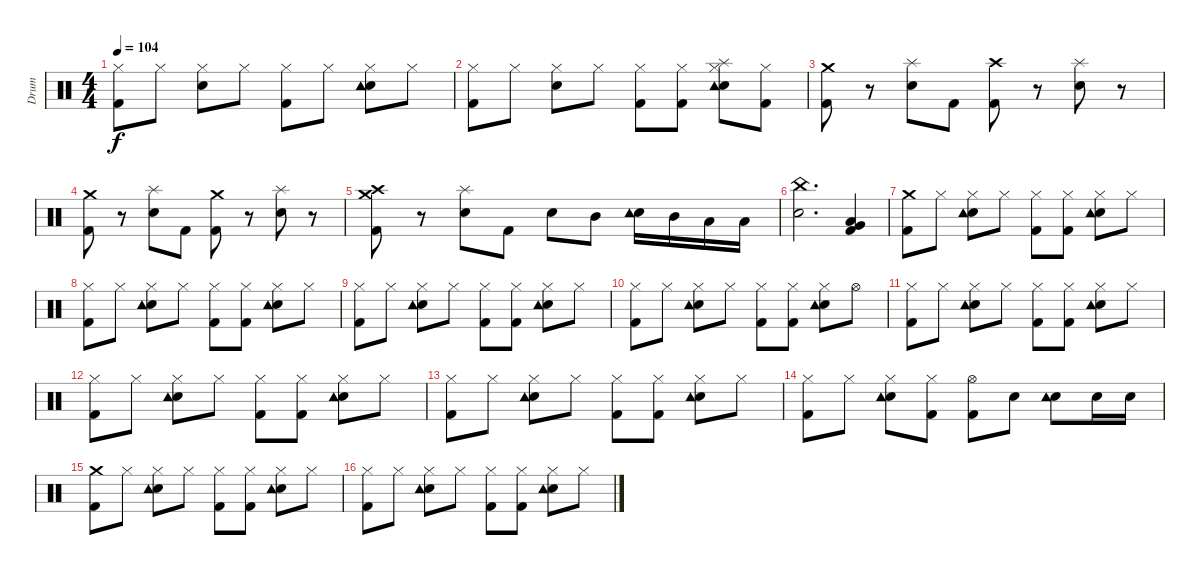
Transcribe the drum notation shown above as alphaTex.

\track ("Drum" "Drum") {instrument percussion}
\staff {score}
\articulation defaults
\ts (4 4)
\tempo 104
\clef neutral
\ks c
("Hi-Hat (closed)" "Kick (hit) 2").8{dy f} "Hi-Hat (closed)".8 ("Snare (hit) 2" "Hi-Hat (closed)").8 "Hi-Hat (closed)".8 ("Hi-Hat (closed)" "Kick (hit) 2").8 "Hi-Hat (closed)".8 ("Snare (hit) 2" "Hi-Hat (closed)" "Tambourine (hit)").8 "Hi-Hat (closed)".8 |
("Hi-Hat (closed)" "Kick (hit) 2").8 "Hi-Hat (closed)".8 ("Snare (hit) 2" "Hi-Hat (closed)").8 "Hi-Hat (closed)".8 ("Hi-Hat (closed)" "Kick (hit) 2").8 ("Hi-Hat (closed)" "Kick (hit) 2").8 ("Snare (hit) 2" "Hi-Hat (closed)" "Tambourine (hit)" "Splash (hit)").8 ("Hi-Hat (closed)" "Kick (hit) 2").8 |
("Crash medium (hit)" "Kick (hit) 2").8 r.8 ("Snare (hit) 2" "Splash (hit)").8 "Kick (hit) 2".8 ("Crash high (hit)" "Kick (hit) 2").8 r.8 ("Snare (hit) 2" "Splash (hit)").8 r.8 |
("Crash medium (hit)" "Kick (hit) 2").8 r.8 ("Snare (hit) 2" "Splash (hit)").8 "Kick (hit) 2".8 ("Crash medium (hit)" "Kick (hit) 2").8 r.8 ("Snare (hit) 2" "Splash (hit)").8 r.8 |
("Crash medium (hit)" "Crash high (hit)" "Kick (hit) 2").8 r.8 ("Snare (hit) 2" "Splash (hit)").8 "Kick (hit) 2".8 "Snare (hit) 2".8 "Mid Tom (hit)".8 ("Snare (hit) 2" "Tambourine (hit)").16 "Mid Tom (hit)".16 "Low Tom (hit)".16 "Low Tom (hit)".16 |
("Snare (hit) 2" "China (hit)").2{d} ("Low Tom (hit)" "Very Low Tom (hit)" "Kick (hit) 2").4 |
("Crash medium (hit)" "Kick (hit) 2").8 "Hi-Hat (closed)".8 ("Snare (hit) 2" "Hi-Hat (closed)" "Tambourine (hit)").8 "Hi-Hat (closed)".8 ("Hi-Hat (closed)" "Kick (hit) 2").8 ("Hi-Hat (closed)" "Kick (hit) 2").8 ("Snare (hit) 2" "Hi-Hat (closed)" "Tambourine (hit)").8 "Hi-Hat (closed)".8 |
("Hi-Hat (closed)" "Kick (hit) 2").8 "Hi-Hat (closed)".8 ("Snare (hit) 2" "Hi-Hat (closed)" "Tambourine (hit)").8 "Hi-Hat (closed)".8 ("Hi-Hat (closed)" "Kick (hit) 2").8 ("Hi-Hat (closed)" "Kick (hit) 2").8 ("Snare (hit) 2" "Hi-Hat (closed)" "Tambourine (hit)").8 "Hi-Hat (closed)".8 |
("Hi-Hat (closed)" "Kick (hit) 2").8 "Hi-Hat (closed)".8 ("Snare (hit) 2" "Hi-Hat (closed)" "Tambourine (hit)").8 "Hi-Hat (closed)".8 ("Hi-Hat (closed)" "Kick (hit) 2").8 ("Hi-Hat (closed)" "Kick (hit) 2").8 ("Snare (hit) 2" "Hi-Hat (closed)" "Tambourine (hit)").8 "Hi-Hat (closed)".8 |
("Hi-Hat (closed)" "Kick (hit) 2").8 "Hi-Hat (closed)".8 ("Snare (hit) 2" "Hi-Hat (closed)" "Tambourine (hit)").8 "Hi-Hat (closed)".8 ("Hi-Hat (closed)" "Kick (hit) 2").8 ("Hi-Hat (closed)" "Kick (hit) 2").8 ("Snare (hit) 2" "Hi-Hat (closed)" "Tambourine (hit)").8 "Hi-Hat (open)".8 |
("Hi-Hat (closed)" "Kick (hit) 2").8 "Hi-Hat (closed)".8 ("Snare (hit) 2" "Hi-Hat (closed)" "Tambourine (hit)").8 "Hi-Hat (closed)".8 ("Hi-Hat (closed)" "Kick (hit) 2").8 ("Hi-Hat (closed)" "Kick (hit) 2").8 ("Snare (hit) 2" "Hi-Hat (closed)" "Tambourine (hit)").8 "Hi-Hat (closed)".8 |
("Hi-Hat (closed)" "Kick (hit) 2").8 "Hi-Hat (closed)".8 ("Snare (hit) 2" "Hi-Hat (closed)" "Tambourine (hit)").8 "Hi-Hat (closed)".8 ("Hi-Hat (closed)" "Kick (hit) 2").8 ("Hi-Hat (closed)" "Kick (hit) 2").8 ("Snare (hit) 2" "Hi-Hat (closed)" "Tambourine (hit)").8 "Hi-Hat (closed)".8 |
("Hi-Hat (closed)" "Kick (hit) 2").8 "Hi-Hat (closed)".8 ("Snare (hit) 2" "Hi-Hat (closed)" "Tambourine (hit)").8 "Hi-Hat (closed)".8 ("Hi-Hat (closed)" "Kick (hit) 2").8 ("Hi-Hat (closed)" "Kick (hit) 2").8 ("Snare (hit) 2" "Hi-Hat (closed)" "Tambourine (hit)").8 "Hi-Hat (closed)".8 |
("Hi-Hat (closed)" "Kick (hit) 2").8 "Hi-Hat (closed)".8 ("Snare (hit) 2" "Hi-Hat (closed)" "Tambourine (hit)").8 ("Hi-Hat (closed)" "Kick (hit) 2").8 ("Hi-Hat (open)" "Kick (hit) 2").8 "Snare (hit) 2".8 ("Snare (hit) 2" "Tambourine (hit)").8 "Snare (hit) 2".16 "Snare (hit) 2".16 |
("Crash medium (hit)" "Kick (hit) 2").8 "Hi-Hat (closed)".8 ("Snare (hit) 2" "Hi-Hat (closed)" "Tambourine (hit)").8 "Hi-Hat (closed)".8 ("Hi-Hat (closed)" "Kick (hit) 2").8 ("Hi-Hat (closed)" "Kick (hit) 2").8 ("Snare (hit) 2" "Hi-Hat (closed)" "Tambourine (hit)").8 "Hi-Hat (closed)".8 |
("Hi-Hat (closed)" "Kick (hit) 2").8 "Hi-Hat (closed)".8 ("Snare (hit) 2" "Hi-Hat (closed)" "Tambourine (hit)").8 "Hi-Hat (closed)".8 ("Hi-Hat (closed)" "Kick (hit) 2").8 ("Hi-Hat (closed)" "Kick (hit) 2").8 ("Snare (hit) 2" "Hi-Hat (closed)" "Tambourine (hit)").8 "Hi-Hat (closed)".8
